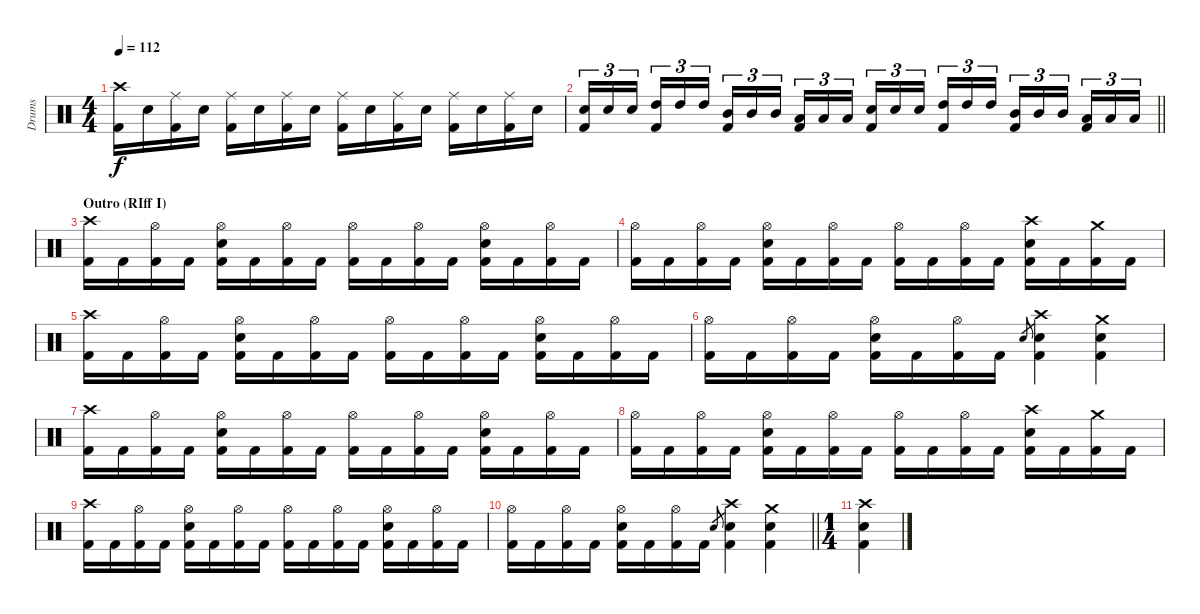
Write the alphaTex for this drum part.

\track ("Drums" "Drums") {instrument percussion}
\staff {score}
\articulation defaults
\ts (4 4)
\tempo 112
\clef neutral
\ks c
("Crash high (hit)" "Kick (hit) 2").16{dy f} "Electric Snare (hit)".16 ("Ride (middle)" "Kick (hit) 2").16 "Electric Snare (hit)".16 ("Ride (middle)" "Kick (hit) 2").16 "Electric Snare (hit)".16 ("Ride (middle)" "Kick (hit) 2").16 "Electric Snare (hit)".16 ("Ride (middle)" "Kick (hit) 2").16 "Electric Snare (hit)".16 ("Ride (middle)" "Kick (hit) 2").16 "Electric Snare (hit)".16 ("Ride (middle)" "Kick (hit) 2").16 "Electric Snare (hit)".16 ("Ride (middle)" "Kick (hit) 2").16 "Electric Snare (hit)".16 |
\barLineRight lightlight
("Electric Snare (hit)" "Kick (hit) 2").16{tu (3 2)} "Electric Snare (hit)".16{tu (3 2)} "Electric Snare (hit)".16{tu (3 2) beam splitsecondary} ("High Tom (hit)" "Kick (hit) 2").16{tu (3 2)} "High Tom (hit)".16{tu (3 2)} "High Tom (hit)".16{tu (3 2)} ("Mid Tom (hit)" "Kick (hit) 2").16{tu (3 2)} "Mid Tom (hit)".16{tu (3 2)} "Mid Tom (hit)".16{tu (3 2) beam splitsecondary} ("Low Tom (hit)" "Kick (hit) 2").16{tu (3 2)} "Low Tom (hit)".16{tu (3 2)} "Low Tom (hit)".16{tu (3 2)} ("Electric Snare (hit)" "Kick (hit) 2").16{tu (3 2)} "Electric Snare (hit)".16{tu (3 2)} "Electric Snare (hit)".16{tu (3 2) beam splitsecondary} ("High Tom (hit)" "Kick (hit) 2").16{tu (3 2)} "High Tom (hit)".16{tu (3 2)} "High Tom (hit)".16{tu (3 2)} ("Mid Tom (hit)" "Kick (hit) 2").16{tu (3 2)} "Mid Tom (hit)".16{tu (3 2)} "Mid Tom (hit)".16{tu (3 2) beam splitsecondary} ("Low Tom (hit)" "Kick (hit) 2").16{tu (3 2)} "Low Tom (hit)".16{tu (3 2)} "Low Tom (hit)".16{tu (3 2)} |
\section ("" "Outro (RIff I)")
("Crash high (hit)" "Kick (hit) 2").16 "Kick (hit) 2".16 ("Hi-Hat (open)" "Kick (hit) 2").16 "Kick (hit) 2".16 ("Hi-Hat (open)" "Electric Snare (hit)" "Kick (hit) 2").16 "Kick (hit) 2".16 ("Hi-Hat (open)" "Kick (hit) 2").16 "Kick (hit) 2".16 ("Hi-Hat (open)" "Kick (hit) 2").16 "Kick (hit) 2".16 ("Hi-Hat (open)" "Kick (hit) 2").16 "Kick (hit) 2".16 ("Hi-Hat (open)" "Electric Snare (hit)" "Kick (hit) 2").16 "Kick (hit) 2".16 ("Hi-Hat (open)" "Kick (hit) 2").16 "Kick (hit) 2".16 |
("Hi-Hat (open)" "Kick (hit) 2").16 "Kick (hit) 2".16 ("Hi-Hat (open)" "Kick (hit) 2").16 "Kick (hit) 2".16 ("Hi-Hat (open)" "Electric Snare (hit)" "Kick (hit) 2").16 "Kick (hit) 2".16 ("Hi-Hat (open)" "Kick (hit) 2").16 "Kick (hit) 2".16 ("Hi-Hat (open)" "Kick (hit) 2").16 "Kick (hit) 2".16 ("Hi-Hat (open)" "Kick (hit) 2").16 "Kick (hit) 2".16 ("Crash high (hit)" "Electric Snare (hit)" "Kick (hit) 2").16 "Kick (hit) 2".16 ("Crash medium (hit)" "Kick (hit) 2").16 "Kick (hit) 2".16 |
("Crash high (hit)" "Kick (hit) 2").16 "Kick (hit) 2".16 ("Hi-Hat (open)" "Kick (hit) 2").16 "Kick (hit) 2".16 ("Hi-Hat (open)" "Electric Snare (hit)" "Kick (hit) 2").16 "Kick (hit) 2".16 ("Hi-Hat (open)" "Kick (hit) 2").16 "Kick (hit) 2".16 ("Hi-Hat (open)" "Kick (hit) 2").16 "Kick (hit) 2".16 ("Hi-Hat (open)" "Kick (hit) 2").16 "Kick (hit) 2".16 ("Hi-Hat (open)" "Electric Snare (hit)" "Kick (hit) 2").16 "Kick (hit) 2".16 ("Hi-Hat (open)" "Kick (hit) 2").16 "Kick (hit) 2".16 |
("Hi-Hat (open)" "Kick (hit) 2").16 "Kick (hit) 2".16 ("Hi-Hat (open)" "Kick (hit) 2").16 "Kick (hit) 2".16 ("Hi-Hat (open)" "Electric Snare (hit)" "Kick (hit) 2").16 "Kick (hit) 2".16 ("Hi-Hat (open)" "Kick (hit) 2").16 "Kick (hit) 2".16 "Electric Snare (hit)".8{gr} ("Crash high (hit)" "Electric Snare (hit)" "Kick (hit) 2").4 ("Crash medium (hit)" "Electric Snare (hit)" "Kick (hit) 2").4 |
("Crash high (hit)" "Kick (hit) 2").16 "Kick (hit) 2".16 ("Hi-Hat (open)" "Kick (hit) 2").16 "Kick (hit) 2".16 ("Hi-Hat (open)" "Electric Snare (hit)" "Kick (hit) 2").16 "Kick (hit) 2".16 ("Hi-Hat (open)" "Kick (hit) 2").16 "Kick (hit) 2".16 ("Hi-Hat (open)" "Kick (hit) 2").16 "Kick (hit) 2".16 ("Hi-Hat (open)" "Kick (hit) 2").16 "Kick (hit) 2".16 ("Hi-Hat (open)" "Electric Snare (hit)" "Kick (hit) 2").16 "Kick (hit) 2".16 ("Hi-Hat (open)" "Kick (hit) 2").16 "Kick (hit) 2".16 |
("Hi-Hat (open)" "Kick (hit) 2").16 "Kick (hit) 2".16 ("Hi-Hat (open)" "Kick (hit) 2").16 "Kick (hit) 2".16 ("Hi-Hat (open)" "Electric Snare (hit)" "Kick (hit) 2").16 "Kick (hit) 2".16 ("Hi-Hat (open)" "Kick (hit) 2").16 "Kick (hit) 2".16 ("Hi-Hat (open)" "Kick (hit) 2").16 "Kick (hit) 2".16 ("Hi-Hat (open)" "Kick (hit) 2").16 "Kick (hit) 2".16 ("Crash high (hit)" "Electric Snare (hit)" "Kick (hit) 2").16 "Kick (hit) 2".16 ("Crash medium (hit)" "Kick (hit) 2").16 "Kick (hit) 2".16 |
("Crash high (hit)" "Kick (hit) 2").16 "Kick (hit) 2".16 ("Hi-Hat (open)" "Kick (hit) 2").16 "Kick (hit) 2".16 ("Hi-Hat (open)" "Electric Snare (hit)" "Kick (hit) 2").16 "Kick (hit) 2".16 ("Hi-Hat (open)" "Kick (hit) 2").16 "Kick (hit) 2".16 ("Hi-Hat (open)" "Kick (hit) 2").16 "Kick (hit) 2".16 ("Hi-Hat (open)" "Kick (hit) 2").16 "Kick (hit) 2".16 ("Hi-Hat (open)" "Electric Snare (hit)" "Kick (hit) 2").16 "Kick (hit) 2".16 ("Hi-Hat (open)" "Kick (hit) 2").16 "Kick (hit) 2".16 |
\barLineRight lightlight
("Hi-Hat (open)" "Kick (hit) 2").16 "Kick (hit) 2".16 ("Hi-Hat (open)" "Kick (hit) 2").16 "Kick (hit) 2".16 ("Hi-Hat (open)" "Electric Snare (hit)" "Kick (hit) 2").16 "Kick (hit) 2".16 ("Hi-Hat (open)" "Kick (hit) 2").16 "Kick (hit) 2".16 "Electric Snare (hit)".8{gr} ("Crash high (hit)" "Electric Snare (hit)" "Kick (hit) 2").4 ("Crash medium (hit)" "Electric Snare (hit)" "Kick (hit) 2").4 |
\ts (1 4)
("Crash high (hit)" "Electric Snare (hit)" "Kick (hit) 2").4
